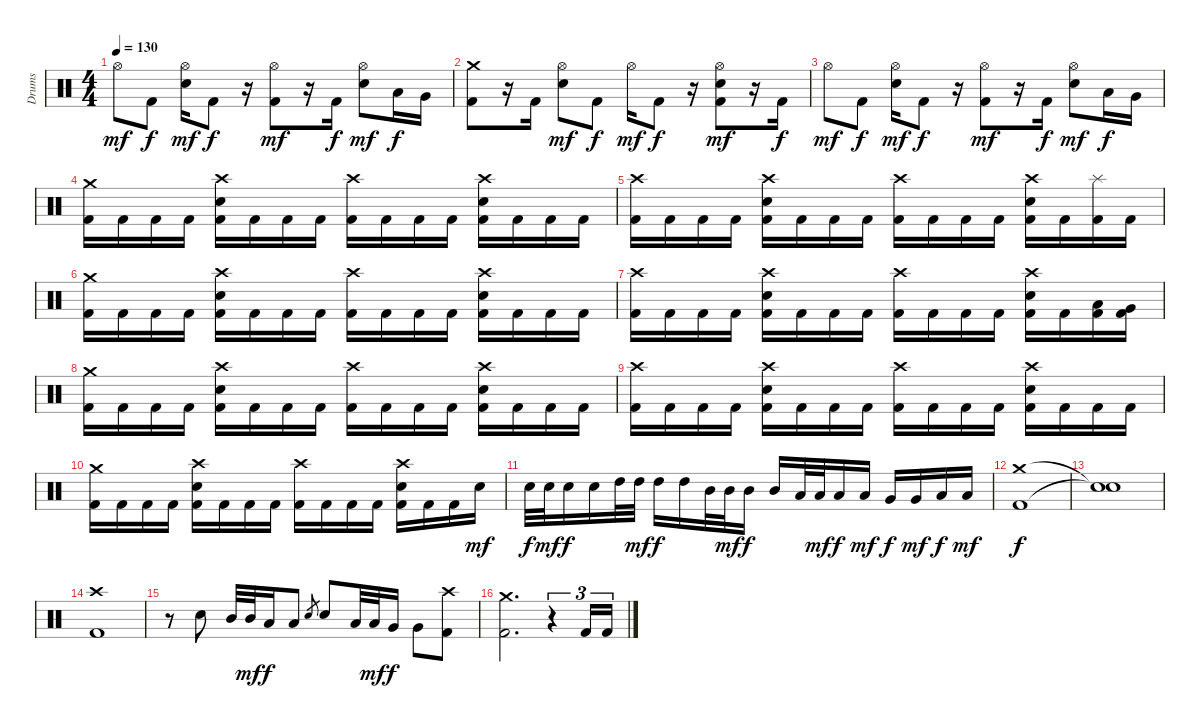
\track ("Drums" "Drums") {instrument percussion}
\staff {score}
\articulation defaults
\ts (4 4)
\tempo 130
\clef neutral
\ks c "Hi-Hat (open)".8{dy mf} "Kick (hit) 2".8{dy f}
("Hi-Hat (open)" "Electric Snare (hit)").16{dy mf} "Kick (hit) 2".8{dy f} r.16 ("Kick (hit) 2" "Hi-Hat (open)").8{dy mf} r.16 "Kick (hit) 2".16{dy f} ("Hi-Hat (open)" "Electric Snare (hit)").8{dy mf} "Low Tom (hit)".16{dy f} "Very Low Tom (hit)".16 |
("Kick (hit) 2" "Crash medium (hit)").8 r.16 "Kick (hit) 2".16 ("Hi-Hat (open)" "Electric Snare (hit)").8{dy mf} "Kick (hit) 2".8{dy f} "Hi-Hat (open)".16{dy mf} "Kick (hit) 2".8{dy f} r.16 ("Kick (hit) 2" "Hi-Hat (open)" "Electric Snare (hit)").8{dy mf} r.16 "Kick (hit) 2".16{dy f} |
"Hi-Hat (open)".8{dy mf} "Kick (hit) 2".8{dy f} ("Hi-Hat (open)" "Electric Snare (hit)").16{dy mf} "Kick (hit) 2".8{dy f} r.16 ("Kick (hit) 2" "Hi-Hat (open)").8{dy mf} r.16 "Kick (hit) 2".16{dy f} ("Hi-Hat (open)" "Electric Snare (hit)").8{dy mf} "Low Tom (hit)".16{dy f} "Very Low Tom (hit)".16 |
("Kick (hit) 2" "Crash medium (hit)").16 "Kick (hit) 2".16 "Kick (hit) 2".16 "Kick (hit) 2".16 ("Kick (hit) 2" "Crash high (hit)" "Electric Snare (hit)").16 "Kick (hit) 2".16 "Kick (hit) 2".16 "Kick (hit) 2".16 ("Kick (hit) 2" "Crash high (hit)").16 "Kick (hit) 2".16 "Kick (hit) 2".16 "Kick (hit) 2".16 ("Kick (hit) 2" "Crash high (hit)" "Electric Snare (hit)").16 "Kick (hit) 2".16 "Kick (hit) 2".16 "Kick (hit) 2".16 |
("Kick (hit) 2" "Crash high (hit)").16 "Kick (hit) 2".16 "Kick (hit) 2".16 "Kick (hit) 2".16 ("Kick (hit) 2" "Crash high (hit)" "Electric Snare (hit)").16 "Kick (hit) 2".16 "Kick (hit) 2".16 "Kick (hit) 2".16 ("Kick (hit) 2" "Crash high (hit)").16 "Kick (hit) 2".16 "Kick (hit) 2".16 "Kick (hit) 2".16 ("Kick (hit) 2" "Crash high (hit)" "Electric Snare (hit)").16 "Kick (hit) 2".16 ("Kick (hit) 2" "Splash (hit)").16 "Kick (hit) 2".16 |
("Kick (hit) 2" "Crash medium (hit)").16 "Kick (hit) 2".16 "Kick (hit) 2".16 "Kick (hit) 2".16 ("Kick (hit) 2" "Crash high (hit)" "Electric Snare (hit)").16 "Kick (hit) 2".16 "Kick (hit) 2".16 "Kick (hit) 2".16 ("Kick (hit) 2" "Crash high (hit)").16 "Kick (hit) 2".16 "Kick (hit) 2".16 "Kick (hit) 2".16 ("Kick (hit) 2" "Crash high (hit)" "Electric Snare (hit)").16 "Kick (hit) 2".16 "Kick (hit) 2".16 "Kick (hit) 2".16 |
("Kick (hit) 2" "Crash high (hit)").16 "Kick (hit) 2".16 "Kick (hit) 2".16 "Kick (hit) 2".16 ("Kick (hit) 2" "Crash high (hit)" "Electric Snare (hit)").16 "Kick (hit) 2".16 "Kick (hit) 2".16 "Kick (hit) 2".16 ("Kick (hit) 2" "Crash high (hit)").16 "Kick (hit) 2".16 "Kick (hit) 2".16 "Kick (hit) 2".16 ("Kick (hit) 2" "Crash high (hit)" "Electric Snare (hit)").16 "Kick (hit) 2".16 ("Kick (hit) 2" "Low Tom (hit)").16 ("Kick (hit) 2" "Very Low Tom (hit)").16 |
("Kick (hit) 2" "Crash medium (hit)").16 "Kick (hit) 2".16 "Kick (hit) 2".16 "Kick (hit) 2".16 ("Kick (hit) 2" "Crash high (hit)" "Electric Snare (hit)").16 "Kick (hit) 2".16 "Kick (hit) 2".16 "Kick (hit) 2".16 ("Kick (hit) 2" "Crash high (hit)").16 "Kick (hit) 2".16 "Kick (hit) 2".16 "Kick (hit) 2".16 ("Kick (hit) 2" "Crash high (hit)" "Electric Snare (hit)").16 "Kick (hit) 2".16 "Kick (hit) 2".16 "Kick (hit) 2".16 |
("Kick (hit) 2" "Crash high (hit)").16 "Kick (hit) 2".16 "Kick (hit) 2".16 "Kick (hit) 2".16 ("Kick (hit) 2" "Crash high (hit)" "Electric Snare (hit)").16 "Kick (hit) 2".16 "Kick (hit) 2".16 "Kick (hit) 2".16 ("Kick (hit) 2" "Crash high (hit)").16 "Kick (hit) 2".16 "Kick (hit) 2".16 "Kick (hit) 2".16 ("Kick (hit) 2" "Crash high (hit)" "Electric Snare (hit)").16 "Kick (hit) 2".16 "Kick (hit) 2".16 "Kick (hit) 2".16 |
("Kick (hit) 2" "Crash medium (hit)").16 "Kick (hit) 2".16 "Kick (hit) 2".16 "Kick (hit) 2".16 ("Kick (hit) 2" "Crash high (hit)" "Electric Snare (hit)").16 "Kick (hit) 2".16 "Kick (hit) 2".16 "Kick (hit) 2".16 ("Kick (hit) 2" "Crash high (hit)").16 "Kick (hit) 2".16 "Kick (hit) 2".16 "Kick (hit) 2".16 ("Kick (hit) 2" "Crash high (hit)" "Electric Snare (hit)").16 "Kick (hit) 2".16 "Kick (hit) 2".16 "Electric Snare (hit)".16{dy mf} |
"Electric Snare (hit)".32{dy f} "Electric Snare (hit)".32{dy mf} "Electric Snare (hit)".16{dy f} "Electric Snare (hit)".16 "High Tom (hit)".32 "High Tom (hit)".32{dy mf} "High Tom (hit)".16{dy f} "High Tom (hit)".16 "Mid Tom (hit)".32 "Mid Tom (hit)".32{dy mf} "Mid Tom (hit)".16{dy f} "Mid Tom (hit)".16 "Low Tom (hit)".32 "Low Tom (hit)".32{dy mf} "Low Tom (hit)".16{dy f} "Low Tom (hit)".16{dy mf} "Very Low Tom (hit)".16{dy f} "Very Low Tom (hit)".16{dy mf} "Low Floor Tom (hit)".16{dy f} "Low Floor Tom (hit)".16{dy mf} |
("Kick (hit) 2" "Crash medium (hit)").1{dy f} |
("Snare (hit)"{t} "Snare (hit)"{t}).1 |
("Kick (hit) 2" "Crash high (hit)").1 |
r.8 "Electric Snare (hit)".8 "Mid Tom (hit)".32 "Mid Tom (hit)".32{dy mf} "Low Tom (hit)".16{dy f} "Low Tom (hit)".8 "Electric Snare (hit)".8{gr} "Electric Snare (hit)".8 "Low Tom (hit)".32 "Low Tom (hit)".32{dy mf} "Very Low Tom (hit)".16{dy f} "Very Low Tom (hit)".8 ("Kick (hit) 2" "Crash high (hit)").8 |
("Kick (hit) 2" "Crash medium (hit)").2{d} r.4{tu (3 2)} "Kick (hit) 2".16{tu (3 2)} "Kick (hit) 2".16{tu (3 2)}
